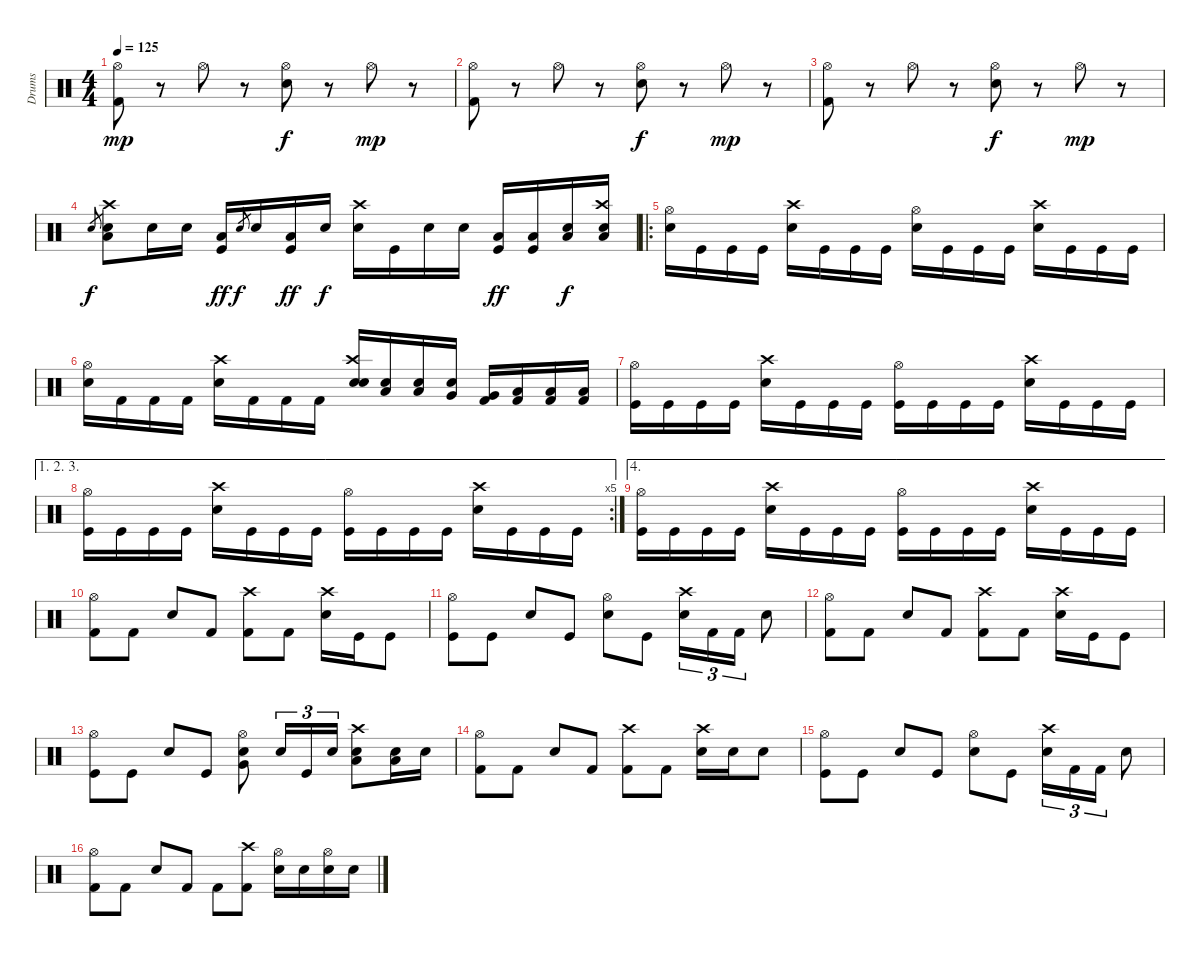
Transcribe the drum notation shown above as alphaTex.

\track ("Drums" "Drums") {instrument percussion}
\staff {score}
\articulation defaults
\ts (4 4)
\tempo 125
\clef neutral
\ks c
("Hi-Hat (open)" "Kick (hit) 2").8{dy mp} r.8 "Hi-Hat (open)".8 r.8 ("Hi-Hat (open)" "Electric Snare (hit)").8{dy f} r.8 "Hi-Hat (open)".8{dy mp} r.8 |
("Hi-Hat (open)" "Kick (hit) 2").8 r.8 "Hi-Hat (open)".8 r.8 ("Hi-Hat (open)" "Electric Snare (hit)").8{dy f} r.8 "Hi-Hat (open)".8{dy mp} r.8 |
("Hi-Hat (open)" "Kick (hit) 2").8 r.8 "Hi-Hat (open)".8 r.8 ("Hi-Hat (open)" "Electric Snare (hit)").8{dy f} r.8 "Hi-Hat (open)".8{dy mp} r.8 |
"Electric Snare (hit)".8{gr dy f} ("Crash high (hit)" "Low Floor Tom (hit)" "Electric Snare (hit)").8 "Electric Snare (hit)".16 "Electric Snare (hit)".16 ("Low Floor Tom (hit)" "Kick (hit)").16{dy ff} "Electric Snare (hit)".8{gr dy f} "Electric Snare (hit)".16 ("Low Floor Tom (hit)" "Kick (hit)").16{dy ff} "Electric Snare (hit)".16{dy f} ("Crash high (hit)" "Electric Snare (hit)").16 "Kick (hit)".16 "Electric Snare (hit)".16 "Electric Snare (hit)".16 ("Low Floor Tom (hit)" "Kick (hit)").16{dy ff} ("Low Floor Tom (hit)" "Kick (hit)").16 ("Low Floor Tom (hit)" "Electric Snare (hit)").16{dy f} ("Crash high (hit)" "Low Floor Tom (hit)" "Electric Snare (hit)").16 |
\ro
("Hi-Hat (open)" "Electric Snare (hit)").16 "Kick (hit)".16 "Kick (hit)".16 "Kick (hit)".16 ("Crash high (hit)" "Electric Snare (hit)").16 "Kick (hit)".16 "Kick (hit)".16 "Kick (hit)".16 ("Hi-Hat (open)" "Electric Snare (hit)").16 "Kick (hit)".16 "Kick (hit)".16 "Kick (hit)".16 ("Crash high (hit)" "Electric Snare (hit)").16 "Kick (hit)".16 "Kick (hit)".16 "Kick (hit)".16 |
("Hi-Hat (open)" "Electric Snare (hit)").16 "Kick (hit) 2".16 "Kick (hit) 2".16 "Kick (hit) 2".16 ("Crash high (hit)" "Electric Snare (hit)").16 "Kick (hit) 2".16 "Kick (hit) 2".16 "Kick (hit) 2".16 ("Crash high (hit)" "Electric Snare (hit)" "Snare (hit) 2").16 ("Low Tom (hit)" "Snare (hit) 2").16 ("Low Tom (hit)" "Snare (hit) 2").16 ("Very Low Tom (hit)" "Snare (hit) 2").16 ("Very Low Tom (hit)" "Kick (hit) 2").16 ("Low Floor Tom (hit)" "Kick (hit) 2").16 ("Low Floor Tom (hit)" "Kick (hit) 2").16 ("Low Floor Tom (hit)" "Kick (hit) 2").16 |
("Hi-Hat (open)" "Kick (hit)").16 "Kick (hit)".16 "Kick (hit)".16 "Kick (hit)".16 ("Crash high (hit)" "Electric Snare (hit)").16 "Kick (hit)".16 "Kick (hit)".16 "Kick (hit)".16 ("Hi-Hat (open)" "Kick (hit)").16 "Kick (hit)".16 "Kick (hit)".16 "Kick (hit)".16 ("Crash high (hit)" "Electric Snare (hit)").16 "Kick (hit)".16 "Kick (hit)".16 "Kick (hit)".16 |
\ae (1 2 3)
\rc 5
("Hi-Hat (open)" "Kick (hit)").16 "Kick (hit)".16 "Kick (hit)".16 "Kick (hit)".16 ("Crash high (hit)" "Electric Snare (hit)").16 "Kick (hit)".16 "Kick (hit)".16 "Kick (hit)".16 ("Hi-Hat (open)" "Kick (hit)").16 "Kick (hit)".16 "Kick (hit)".16 "Kick (hit)".16 ("Crash high (hit)" "Electric Snare (hit)").16 "Kick (hit)".16 "Kick (hit)".16 "Kick (hit)".16 |
\ae 4
("Hi-Hat (open)" "Kick (hit)").16 "Kick (hit)".16 "Kick (hit)".16 "Kick (hit)".16 ("Crash high (hit)" "Electric Snare (hit)").16 "Kick (hit)".16 "Kick (hit)".16 "Kick (hit)".16 ("Hi-Hat (open)" "Kick (hit)").16 "Kick (hit)".16 "Kick (hit)".16 "Kick (hit)".16 ("Crash high (hit)" "Electric Snare (hit)").16 "Kick (hit)".16 "Kick (hit)".16 "Kick (hit)".16 |
("Hi-Hat (open)" "Kick (hit) 2").8 "Kick (hit) 2".8 "Electric Snare (hit)".8 "Kick (hit) 2".8 ("Crash high (hit)" "Kick (hit) 2").8 "Kick (hit) 2".8 ("Crash high (hit)" "Electric Snare (hit)").16 "Kick (hit)".16 "Kick (hit)".8 |
("Hi-Hat (open)" "Kick (hit)").8 "Kick (hit)".8 "Electric Snare (hit)".8 "Kick (hit)".8 ("Hi-Hat (open)" "Snare (hit) 2").8 "Kick (hit)".8 ("Crash high (hit)" "Electric Snare (hit)").16{tu (3 2)} "Kick (hit) 2".16{tu (3 2)} "Kick (hit) 2".16{tu (3 2)} "Snare (hit) 2".8 |
("Hi-Hat (open)" "Kick (hit) 2").8 "Kick (hit) 2".8 "Electric Snare (hit)".8 "Kick (hit) 2".8 ("Crash high (hit)" "Kick (hit) 2").8 "Kick (hit) 2".8 ("Crash high (hit)" "Electric Snare (hit)").16 "Kick (hit)".16 "Kick (hit)".8 |
("Hi-Hat (open)" "Kick (hit)").8 "Kick (hit)".8 "Electric Snare (hit)".8 "Kick (hit)".8 ("Hi-Hat (open)" "Very Low Tom (hit)" "Snare (hit) 2").8 "Snare (hit) 2".16{tu (3 2)} "Kick (hit)".16{tu (3 2)} "Snare (hit) 2".16{tu (3 2)} ("Crash high (hit)" "Low Floor Tom (hit)" "Electric Snare (hit)").8 ("Low Floor Tom (hit)" "Snare (hit) 2").16 "Snare (hit) 2".16 |
("Hi-Hat (open)" "Kick (hit) 2").8 "Kick (hit) 2".8 "Electric Snare (hit)".8 "Kick (hit) 2".8 ("Crash high (hit)" "Kick (hit) 2").8 "Kick (hit) 2".8 ("Crash high (hit)" "Electric Snare (hit)").16 "Snare (hit) 2".16 "Snare (hit) 2".8 |
("Hi-Hat (open)" "Kick (hit)").8 "Kick (hit)".8 "Electric Snare (hit)".8 "Kick (hit)".8 ("Hi-Hat (open)" "Snare (hit) 2").8 "Kick (hit)".8 ("Crash high (hit)" "Electric Snare (hit)").16{tu (3 2)} "Kick (hit) 2".16{tu (3 2)} "Kick (hit) 2".16{tu (3 2)} "Snare (hit) 2".8 |
("Hi-Hat (open)" "Kick (hit) 2").8 "Kick (hit) 2".8 "Electric Snare (hit)".8 "Kick (hit) 2".8 "Kick (hit) 2".8 ("Crash high (hit)" "Kick (hit) 2").8 ("Hi-Hat (open)" "Electric Snare (hit)").16 "Snare (hit) 2".16 ("Hi-Hat (open)" "Electric Snare (hit)").16 "Snare (hit) 2".16
